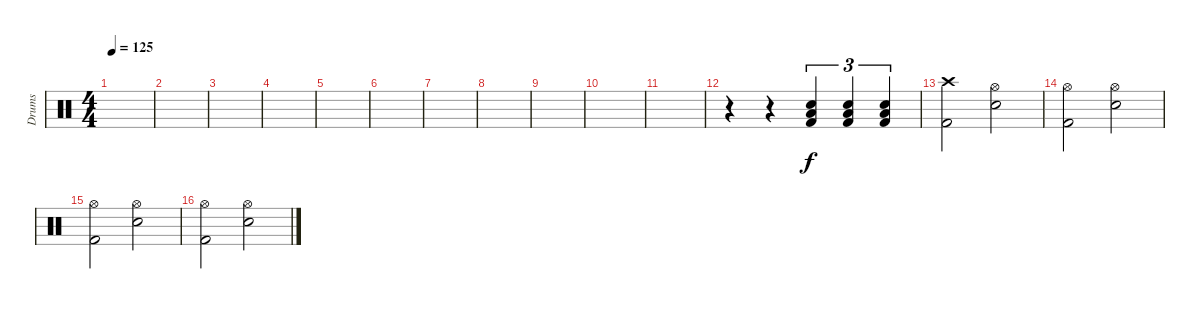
\track ("Drums" "Drums") {instrument percussion}
\staff {score}
\articulation defaults
\ts (4 4)
\tempo 125
\clef neutral
\ks c
|
|
|
|
|
|
|
|
|
|
|
r.4 r.4 ("Low Floor Tom (hit)" "Snare (hit) 2" "Kick (hit) 2").4{tu (3 2)} ("Low Floor Tom (hit)" "Snare (hit) 2" "Kick (hit) 2").4{tu (3 2)} ("Low Floor Tom (hit)" "Snare (hit) 2" "Kick (hit) 2").4{tu (3 2)} |
("Crash high (hit)" "Kick (hit) 2").2 ("Hi-Hat (open)" "Snare (hit) 2").2 |
("Hi-Hat (open)" "Kick (hit) 2").2 ("Hi-Hat (open)" "Snare (hit) 2").2 |
("Hi-Hat (open)" "Kick (hit) 2").2 ("Hi-Hat (open)" "Snare (hit) 2").2 |
("Hi-Hat (open)" "Kick (hit) 2").2 ("Hi-Hat (open)" "Snare (hit) 2").2
